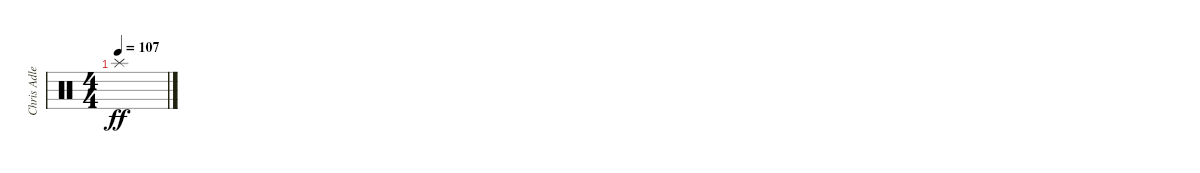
\track ("Chris Adler" "Chris Adle") {instrument percussion}
\staff {score}
\articulation defaults
\ts (4 4)
\tempo 107
\clef neutral
\ks c "Splash (hit)".1{dy ff}
